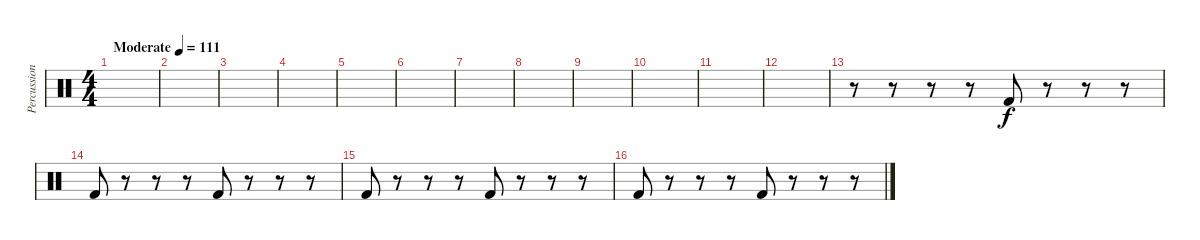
\track ("Percussion" "Percussion") {instrument percussion}
\staff {score}
\articulation defaults
\ts (4 4)
\tempo (111 "Moderate")
\clef neutral
\ks c
|
|
|
|
|
|
|
|
|
|
|
|
r.8 r.8 r.8 r.8 "Kick (hit) 2".8 r.8 r.8 r.8 |
"Kick (hit) 2".8 r.8 r.8 r.8 "Kick (hit) 2".8 r.8 r.8 r.8 |
"Kick (hit) 2".8 r.8 r.8 r.8 "Kick (hit) 2".8 r.8 r.8 r.8 |
"Kick (hit) 2".8 r.8 r.8 r.8 "Kick (hit) 2".8 r.8 r.8 r.8
